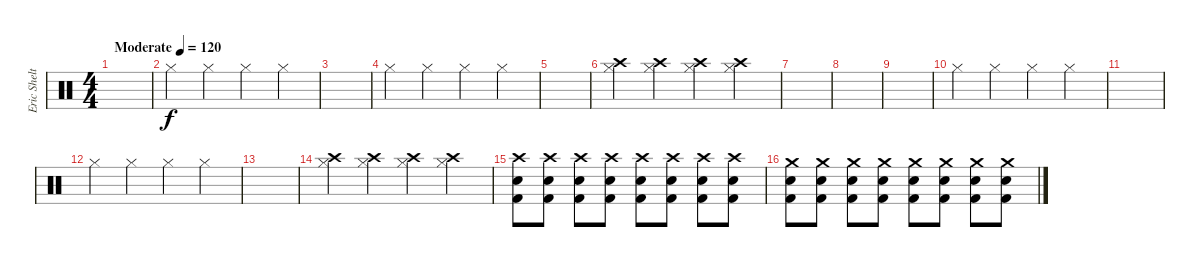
\track ("Eric Shelton" "Eric Shelt") {instrument percussion}
\staff {score}
\articulation defaults
\ts (4 4)
\tempo (120 "Moderate")
\clef neutral
\ks c
|
"Hi-Hat (closed)".4 "Hi-Hat (closed)".4 "Hi-Hat (closed)".4 "Hi-Hat (closed)".4 |
|
"Hi-Hat (closed)".4 "Hi-Hat (closed)".4 "Hi-Hat (closed)".4 "Hi-Hat (closed)".4 |
|
("Hi-Hat (closed)" "Crash high (hit)").4 ("Hi-Hat (closed)" "Crash high (hit)").4 ("Hi-Hat (closed)" "Crash high (hit)").4 ("Hi-Hat (closed)" "Crash high (hit)").4 |
|
|
|
"Hi-Hat (closed)".4 "Hi-Hat (closed)".4 "Hi-Hat (closed)".4 "Hi-Hat (closed)".4 |
|
"Hi-Hat (closed)".4 "Hi-Hat (closed)".4 "Hi-Hat (closed)".4 "Hi-Hat (closed)".4 |
|
("Hi-Hat (closed)" "Crash high (hit)").4 ("Hi-Hat (closed)" "Crash high (hit)").4 ("Hi-Hat (closed)" "Crash high (hit)").4 ("Hi-Hat (closed)" "Crash high (hit)").4 |
("Kick (hit) 2" "Electric Snare (hit)" "Crash high (hit)").8 ("Kick (hit) 2" "Electric Snare (hit)" "Crash high (hit)").8 ("Kick (hit) 2" "Electric Snare (hit)" "Crash high (hit)").8 ("Kick (hit) 2" "Electric Snare (hit)" "Crash high (hit)").8 ("Kick (hit) 2" "Electric Snare (hit)" "Crash high (hit)").8 ("Kick (hit) 2" "Electric Snare (hit)" "Crash high (hit)").8 ("Kick (hit) 2" "Electric Snare (hit)" "Crash high (hit)").8 ("Kick (hit) 2" "Electric Snare (hit)" "Crash high (hit)").8 |
("Kick (hit) 2" "Electric Snare (hit)" "Crash medium (hit)").8 ("Kick (hit) 2" "Electric Snare (hit)" "Crash medium (hit)").8 ("Kick (hit) 2" "Electric Snare (hit)" "Crash medium (hit)").8 ("Kick (hit) 2" "Electric Snare (hit)" "Crash medium (hit)").8 ("Kick (hit) 2" "Electric Snare (hit)" "Crash medium (hit)").8 ("Kick (hit) 2" "Electric Snare (hit)" "Crash medium (hit)").8 ("Kick (hit) 2" "Electric Snare (hit)" "Crash medium (hit)").8 ("Kick (hit) 2" "Electric Snare (hit)" "Crash medium (hit)").8
